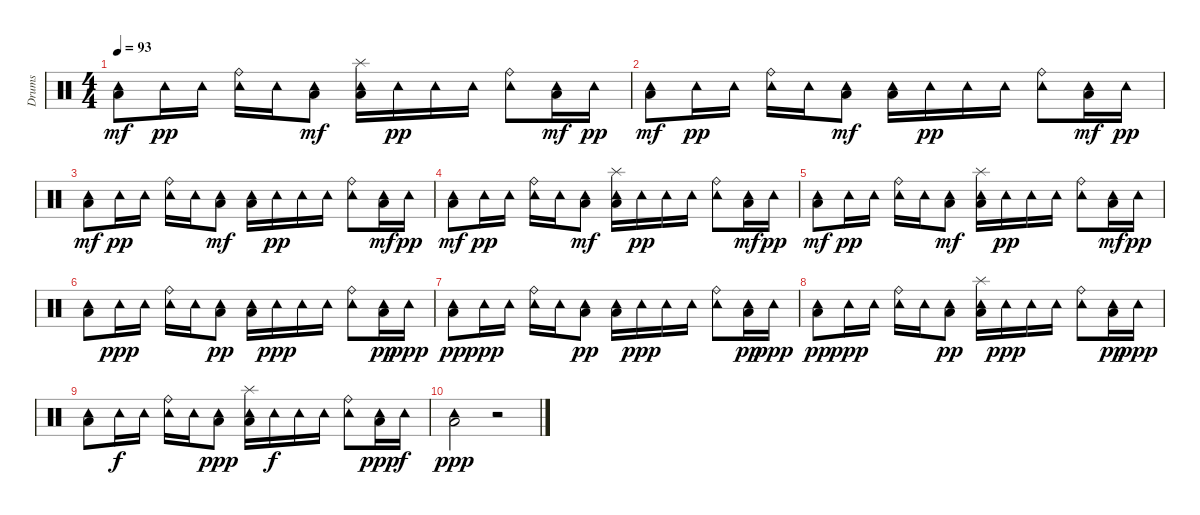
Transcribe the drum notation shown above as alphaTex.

\track ("Drums" "Drums") {instrument percussion}
\staff {score}
\articulation defaults
\ts (4 4)
\tempo 93
\clef neutral
\ks c
("Tambourine (hit)" "Low Floor Tom (hit)").8{dy mf} "Tambourine (hit)".16{dy pp} "Tambourine (hit)".16 ("Tambourine (hit)" "Ride (bell)").16 "Tambourine (hit)".16 ("Tambourine (hit)" "Low Floor Tom (hit)").8{dy mf} ("Tambourine (hit)" "Splash (hit)" "Low Floor Tom (hit)").16 "Tambourine (hit)".16{dy pp} "Tambourine (hit)".16 "Tambourine (hit)".16 ("Tambourine (hit)" "Ride (bell)").8 ("Tambourine (hit)" "Low Floor Tom (hit)").16{dy mf} "Tambourine (hit)".16{dy pp} |
("Tambourine (hit)" "Low Floor Tom (hit)").8{dy mf} "Tambourine (hit)".16{dy pp} "Tambourine (hit)".16 ("Tambourine (hit)" "Ride (bell)").16 "Tambourine (hit)".16 ("Tambourine (hit)" "Low Floor Tom (hit)").8{dy mf} ("Tambourine (hit)" "Low Floor Tom (hit)").16 "Tambourine (hit)".16{dy pp} "Tambourine (hit)".16 "Tambourine (hit)".16 ("Tambourine (hit)" "Ride (bell)").8 ("Tambourine (hit)" "Low Floor Tom (hit)").16{dy mf} "Tambourine (hit)".16{dy pp} |
("Tambourine (hit)" "Low Floor Tom (hit)").8{dy mf} "Tambourine (hit)".16{dy pp} "Tambourine (hit)".16 ("Tambourine (hit)" "Ride (bell)").16 "Tambourine (hit)".16 ("Tambourine (hit)" "Low Floor Tom (hit)").8{dy mf} ("Tambourine (hit)" "Low Floor Tom (hit)").16 "Tambourine (hit)".16{dy pp} "Tambourine (hit)".16 "Tambourine (hit)".16 ("Tambourine (hit)" "Ride (bell)").8 ("Tambourine (hit)" "Low Floor Tom (hit)").16{dy mf} "Tambourine (hit)".16{dy pp} |
("Tambourine (hit)" "Low Floor Tom (hit)").8{dy mf} "Tambourine (hit)".16{dy pp} "Tambourine (hit)".16 ("Tambourine (hit)" "Ride (bell)").16 "Tambourine (hit)".16 ("Tambourine (hit)" "Low Floor Tom (hit)").8{dy mf} ("Tambourine (hit)" "Splash (hit)" "Low Floor Tom (hit)").16 "Tambourine (hit)".16{dy pp} "Tambourine (hit)".16 "Tambourine (hit)".16 ("Tambourine (hit)" "Ride (bell)").8 ("Tambourine (hit)" "Low Floor Tom (hit)").16{dy mf} "Tambourine (hit)".16{dy pp} |
("Tambourine (hit)" "Low Floor Tom (hit)").8{dy mf} "Tambourine (hit)".16{dy pp} "Tambourine (hit)".16 ("Tambourine (hit)" "Ride (bell)").16 "Tambourine (hit)".16 ("Tambourine (hit)" "Low Floor Tom (hit)").8{dy mf} ("Tambourine (hit)" "Splash (hit)" "Low Floor Tom (hit)").16 "Tambourine (hit)".16{dy pp} "Tambourine (hit)".16 "Tambourine (hit)".16 ("Tambourine (hit)" "Ride (bell)").8 ("Tambourine (hit)" "Low Floor Tom (hit)").16{dy mf} "Tambourine (hit)".16{dy pp} |
("Tambourine (hit)" "Low Floor Tom (hit)").8 "Tambourine (hit)".16{dy ppp} "Tambourine (hit)".16 ("Tambourine (hit)" "Ride (bell)").16 "Tambourine (hit)".16 ("Tambourine (hit)" "Low Floor Tom (hit)").8{dy pp} ("Tambourine (hit)" "Low Floor Tom (hit)").16 "Tambourine (hit)".16{dy ppp} "Tambourine (hit)".16 "Tambourine (hit)".16 ("Tambourine (hit)" "Ride (bell)").8 ("Tambourine (hit)" "Low Floor Tom (hit)").16{dy pp} "Tambourine (hit)".16{dy ppp} |
("Tambourine (hit)" "Low Floor Tom (hit)").8{dy pp} "Tambourine (hit)".16{dy ppp} "Tambourine (hit)".16 ("Tambourine (hit)" "Ride (bell)").16 "Tambourine (hit)".16 ("Tambourine (hit)" "Low Floor Tom (hit)").8{dy pp} ("Tambourine (hit)" "Low Floor Tom (hit)").16 "Tambourine (hit)".16{dy ppp} "Tambourine (hit)".16 "Tambourine (hit)".16 ("Tambourine (hit)" "Ride (bell)").8 ("Tambourine (hit)" "Low Floor Tom (hit)").16{dy pp} "Tambourine (hit)".16{dy ppp} |
("Tambourine (hit)" "Low Floor Tom (hit)").8{dy pp} "Tambourine (hit)".16{dy ppp} "Tambourine (hit)".16 ("Tambourine (hit)" "Ride (bell)").16 "Tambourine (hit)".16 ("Tambourine (hit)" "Low Floor Tom (hit)").8{dy pp} ("Tambourine (hit)" "Splash (hit)" "Low Floor Tom (hit)").16 "Tambourine (hit)".16{dy ppp} "Tambourine (hit)".16 "Tambourine (hit)".16 ("Tambourine (hit)" "Ride (bell)").8 ("Tambourine (hit)" "Low Floor Tom (hit)").16{dy pp} "Tambourine (hit)".16{dy ppp} |
("Tambourine (hit)" "Low Floor Tom (hit)").8 "Tambourine (hit)".16{dy f} "Tambourine (hit)".16 ("Tambourine (hit)" "Ride (bell)").16 "Tambourine (hit)".16 ("Tambourine (hit)" "Low Floor Tom (hit)").8{dy ppp} ("Tambourine (hit)" "Splash (hit)" "Low Floor Tom (hit)").16 "Tambourine (hit)".16{dy f} "Tambourine (hit)".16 "Tambourine (hit)".16 ("Tambourine (hit)" "Ride (bell)").8 ("Tambourine (hit)" "Low Floor Tom (hit)").16{dy ppp} "Tambourine (hit)".16{dy f} |
("Tambourine (hit)" "Low Floor Tom (hit)").2{dy ppp} r.2
